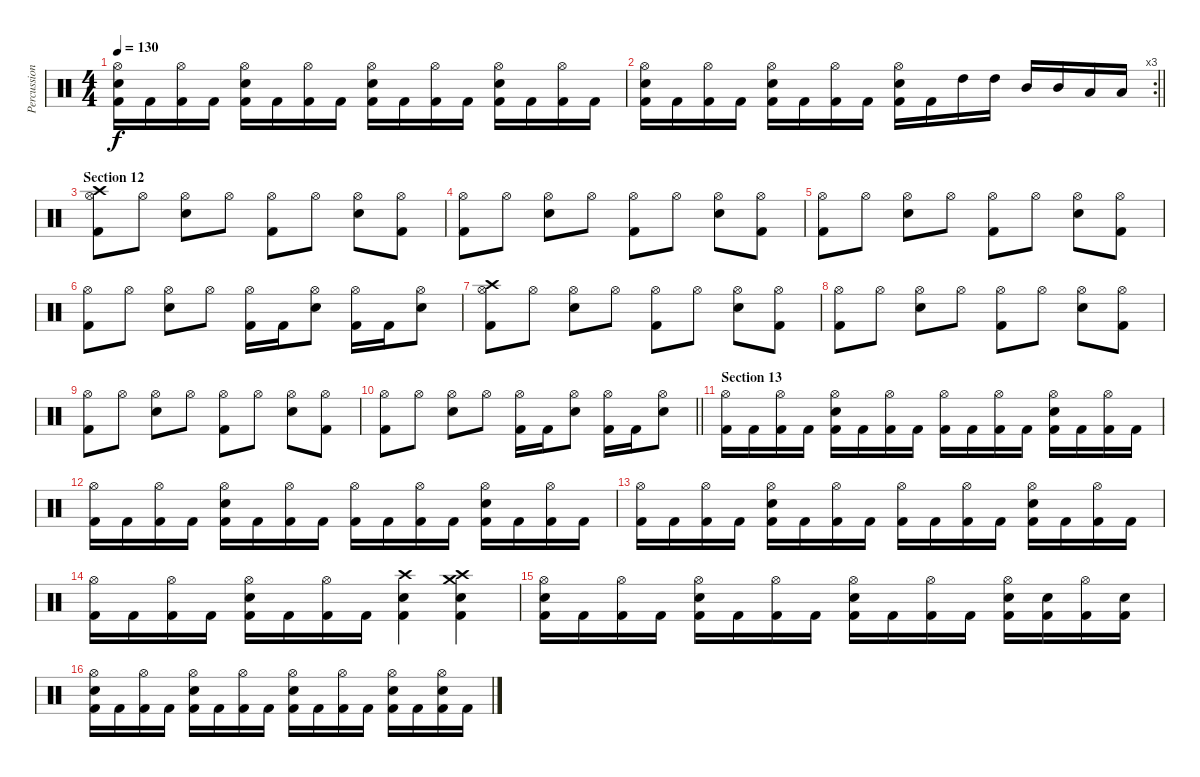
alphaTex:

\track ("Percussions" "Percussion") {instrument percussion}
\staff {score}
\articulation defaults
\ts (4 4)
\tempo 130
\clef neutral
\ks c
("Hi-Hat (open)" "Electric Snare (hit)" "Kick (hit) 2").16{dy f} "Kick (hit) 2".16 ("Hi-Hat (open)" "Kick (hit) 2").16 "Kick (hit) 2".16 ("Hi-Hat (open)" "Electric Snare (hit)" "Kick (hit) 2").16 "Kick (hit) 2".16 ("Hi-Hat (open)" "Kick (hit) 2").16 "Kick (hit) 2".16 ("Hi-Hat (open)" "Electric Snare (hit)" "Kick (hit) 2").16 "Kick (hit) 2".16 ("Hi-Hat (open)" "Kick (hit) 2").16 "Kick (hit) 2".16 ("Hi-Hat (open)" "Electric Snare (hit)" "Kick (hit) 2").16 "Kick (hit) 2".16 ("Hi-Hat (open)" "Kick (hit) 2").16 "Kick (hit) 2".16 |
\rc 3
\barLineRight lightlight
("Hi-Hat (open)" "Electric Snare (hit)" "Kick (hit) 2").16 "Kick (hit) 2".16 ("Hi-Hat (open)" "Kick (hit) 2").16 "Kick (hit) 2".16 ("Hi-Hat (open)" "Electric Snare (hit)" "Kick (hit) 2").16 "Kick (hit) 2".16 ("Hi-Hat (open)" "Kick (hit) 2").16 "Kick (hit) 2".16 ("Hi-Hat (open)" "Electric Snare (hit)" "Kick (hit) 2").16 "Kick (hit) 2".16 "High Tom (hit)".16 "High Tom (hit)".16 "Mid Tom (hit)".16 "Mid Tom (hit)".16 "Low Tom (hit)".16 "Low Tom (hit)".16 |
\section ("" "Section 12")
("Crash high (hit)" "Hi-Hat (open)" "Kick (hit) 2").8 "Hi-Hat (open)".8 ("Hi-Hat (open)" "Electric Snare (hit)").8 "Hi-Hat (open)".8 ("Hi-Hat (open)" "Kick (hit) 2").8 "Hi-Hat (open)".8 ("Hi-Hat (open)" "Electric Snare (hit)").8 ("Hi-Hat (open)" "Kick (hit) 2").8 |
("Hi-Hat (open)" "Kick (hit) 2").8 "Hi-Hat (open)".8 ("Hi-Hat (open)" "Electric Snare (hit)").8 "Hi-Hat (open)".8 ("Hi-Hat (open)" "Kick (hit) 2").8 "Hi-Hat (open)".8 ("Hi-Hat (open)" "Electric Snare (hit)").8 ("Hi-Hat (open)" "Kick (hit) 2").8 |
("Hi-Hat (open)" "Kick (hit) 2").8 "Hi-Hat (open)".8 ("Hi-Hat (open)" "Electric Snare (hit)").8 "Hi-Hat (open)".8 ("Hi-Hat (open)" "Kick (hit) 2").8 "Hi-Hat (open)".8 ("Hi-Hat (open)" "Electric Snare (hit)").8 ("Hi-Hat (open)" "Kick (hit) 2").8 |
("Hi-Hat (open)" "Kick (hit) 2").8 "Hi-Hat (open)".8 ("Hi-Hat (open)" "Electric Snare (hit)").8 "Hi-Hat (open)".8 ("Hi-Hat (open)" "Kick (hit) 2").16 "Kick (hit) 2".16 ("Hi-Hat (open)" "Electric Snare (hit)").8 ("Hi-Hat (open)" "Kick (hit) 2").16 "Kick (hit) 2".16 ("Hi-Hat (open)" "Electric Snare (hit)").8 |
("Crash high (hit)" "Hi-Hat (open)" "Kick (hit) 2").8 "Hi-Hat (open)".8 ("Hi-Hat (open)" "Electric Snare (hit)").8 "Hi-Hat (open)".8 ("Hi-Hat (open)" "Kick (hit) 2").8 "Hi-Hat (open)".8 ("Hi-Hat (open)" "Electric Snare (hit)").8 ("Hi-Hat (open)" "Kick (hit) 2").8 |
("Hi-Hat (open)" "Kick (hit) 2").8 "Hi-Hat (open)".8 ("Hi-Hat (open)" "Electric Snare (hit)").8 "Hi-Hat (open)".8 ("Hi-Hat (open)" "Kick (hit) 2").8 "Hi-Hat (open)".8 ("Hi-Hat (open)" "Electric Snare (hit)").8 ("Hi-Hat (open)" "Kick (hit) 2").8 |
("Hi-Hat (open)" "Kick (hit) 2").8 "Hi-Hat (open)".8 ("Hi-Hat (open)" "Electric Snare (hit)").8 "Hi-Hat (open)".8 ("Hi-Hat (open)" "Kick (hit) 2").8 "Hi-Hat (open)".8 ("Hi-Hat (open)" "Electric Snare (hit)").8 ("Hi-Hat (open)" "Kick (hit) 2").8 |
\barLineRight lightlight
("Hi-Hat (open)" "Kick (hit) 2").8 "Hi-Hat (open)".8 ("Hi-Hat (open)" "Electric Snare (hit)").8 "Hi-Hat (open)".8 ("Hi-Hat (open)" "Kick (hit) 2").16 "Kick (hit) 2".16 ("Hi-Hat (open)" "Electric Snare (hit)").8 ("Hi-Hat (open)" "Kick (hit) 2").16 "Kick (hit) 2".16 ("Hi-Hat (open)" "Electric Snare (hit)").8 |
\section ("" "Section 13")
("Hi-Hat (open)" "Kick (hit) 2").16 "Kick (hit) 2".16 ("Hi-Hat (open)" "Kick (hit) 2").16 "Kick (hit) 2".16 ("Hi-Hat (open)" "Electric Snare (hit)" "Kick (hit) 2").16 "Kick (hit) 2".16 ("Hi-Hat (open)" "Kick (hit) 2").16 "Kick (hit) 2".16 ("Hi-Hat (open)" "Kick (hit) 2").16 "Kick (hit) 2".16 ("Hi-Hat (open)" "Kick (hit) 2").16 "Kick (hit) 2".16 ("Hi-Hat (open)" "Electric Snare (hit)" "Kick (hit) 2").16 "Kick (hit) 2".16 ("Hi-Hat (open)" "Kick (hit) 2").16 "Kick (hit) 2".16 |
("Hi-Hat (open)" "Kick (hit) 2").16 "Kick (hit) 2".16 ("Hi-Hat (open)" "Kick (hit) 2").16 "Kick (hit) 2".16 ("Hi-Hat (open)" "Electric Snare (hit)" "Kick (hit) 2").16 "Kick (hit) 2".16 ("Hi-Hat (open)" "Kick (hit) 2").16 "Kick (hit) 2".16 ("Hi-Hat (open)" "Kick (hit) 2").16 "Kick (hit) 2".16 ("Hi-Hat (open)" "Kick (hit) 2").16 "Kick (hit) 2".16 ("Hi-Hat (open)" "Electric Snare (hit)" "Kick (hit) 2").16 "Kick (hit) 2".16 ("Hi-Hat (open)" "Kick (hit) 2").16 "Kick (hit) 2".16 |
("Hi-Hat (open)" "Kick (hit) 2").16 "Kick (hit) 2".16 ("Hi-Hat (open)" "Kick (hit) 2").16 "Kick (hit) 2".16 ("Hi-Hat (open)" "Electric Snare (hit)" "Kick (hit) 2").16 "Kick (hit) 2".16 ("Hi-Hat (open)" "Kick (hit) 2").16 "Kick (hit) 2".16 ("Hi-Hat (open)" "Kick (hit) 2").16 "Kick (hit) 2".16 ("Hi-Hat (open)" "Kick (hit) 2").16 "Kick (hit) 2".16 ("Hi-Hat (open)" "Electric Snare (hit)" "Kick (hit) 2").16 "Kick (hit) 2".16 ("Hi-Hat (open)" "Kick (hit) 2").16 "Kick (hit) 2".16 |
("Hi-Hat (open)" "Kick (hit) 2").16 "Kick (hit) 2".16 ("Hi-Hat (open)" "Kick (hit) 2").16 "Kick (hit) 2".16 ("Hi-Hat (open)" "Electric Snare (hit)" "Kick (hit) 2").16 "Kick (hit) 2".16 ("Hi-Hat (open)" "Kick (hit) 2").16 "Kick (hit) 2".16 ("Crash high (hit)" "Electric Snare (hit)" "Kick (hit) 2").4 ("Crash medium (hit)" "Crash high (hit)" "Electric Snare (hit)" "Kick (hit) 2").4 |
("Hi-Hat (open)" "Electric Snare (hit)" "Kick (hit) 2").16 "Kick (hit) 2".16 ("Hi-Hat (open)" "Kick (hit) 2").16 "Kick (hit) 2".16 ("Hi-Hat (open)" "Electric Snare (hit)" "Kick (hit) 2").16 "Kick (hit) 2".16 ("Hi-Hat (open)" "Kick (hit) 2").16 "Kick (hit) 2".16 ("Hi-Hat (open)" "Electric Snare (hit)" "Kick (hit) 2").16 "Kick (hit) 2".16 ("Hi-Hat (open)" "Kick (hit) 2").16 "Kick (hit) 2".16 ("Hi-Hat (open)" "Electric Snare (hit)" "Kick (hit) 2").16 ("Electric Snare (hit)" "Kick (hit) 2").16 ("Hi-Hat (open)" "Kick (hit) 2").16 ("Electric Snare (hit)" "Kick (hit) 2").16 |
("Hi-Hat (open)" "Electric Snare (hit)" "Kick (hit) 2").16 "Kick (hit) 2".16 ("Hi-Hat (open)" "Kick (hit) 2").16 "Kick (hit) 2".16 ("Hi-Hat (open)" "Electric Snare (hit)" "Kick (hit) 2").16 "Kick (hit) 2".16 ("Hi-Hat (open)" "Kick (hit) 2").16 "Kick (hit) 2".16 ("Hi-Hat (open)" "Electric Snare (hit)" "Kick (hit) 2").16 "Kick (hit) 2".16 ("Hi-Hat (open)" "Kick (hit) 2").16 "Kick (hit) 2".16 ("Hi-Hat (open)" "Electric Snare (hit)" "Kick (hit) 2").16 "Kick (hit) 2".16 ("Hi-Hat (open)" "Electric Snare (hit)" "Kick (hit) 2").16 "Kick (hit) 2".16
